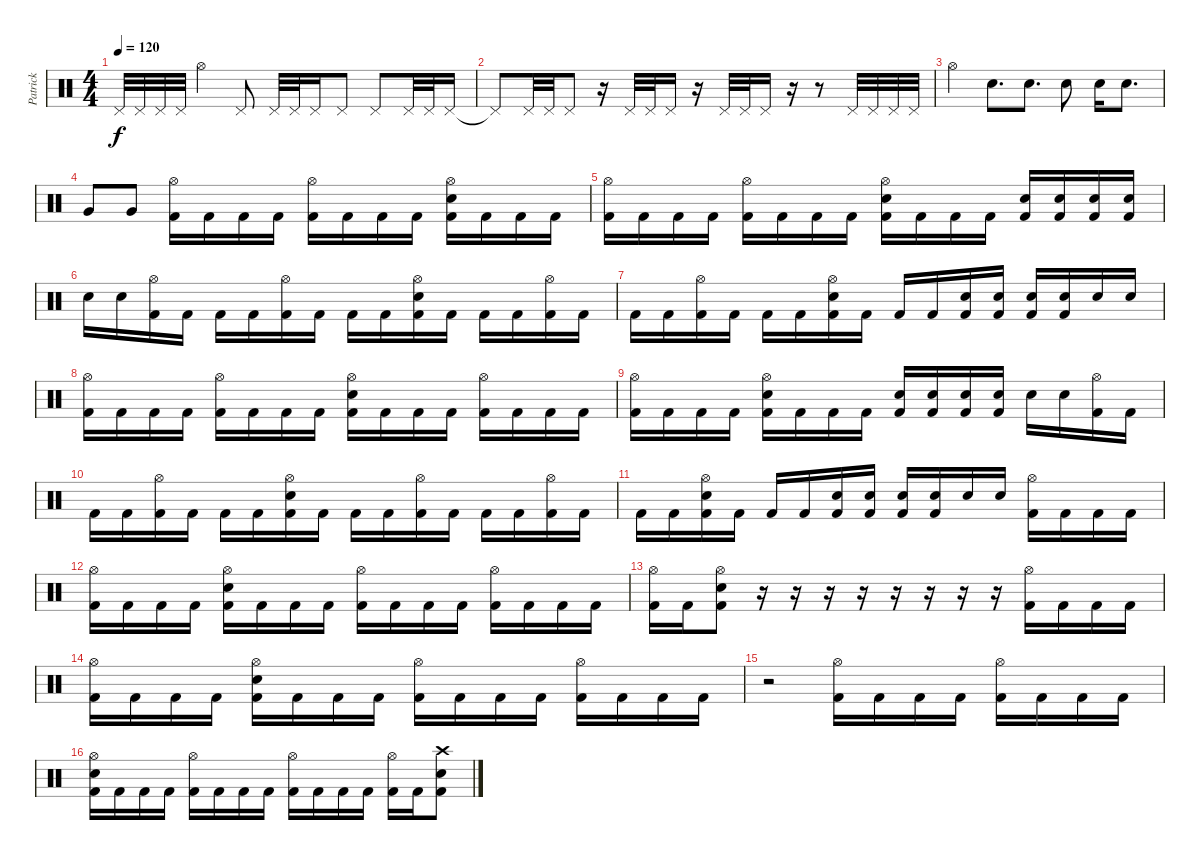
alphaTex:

\track ("Patrick" "Patrick") {instrument percussion}
\staff {score}
\articulation defaults
\ts (4 4)
\tempo 120
\clef neutral
\ks c "Pedal Hi-Hat (hit)".32{dy f} "Pedal Hi-Hat (hit)".32 "Pedal Hi-Hat (hit)".32 "Pedal Hi-Hat (hit)".32 "Hi-Hat (open)".4 "Pedal Hi-Hat (hit)".8 "Pedal Hi-Hat (hit)".32 "Pedal Hi-Hat (hit)".32 "Pedal Hi-Hat (hit)".16 "Pedal Hi-Hat (hit)".8 "Pedal Hi-Hat (hit)".8 "Pedal Hi-Hat (hit)".32 "Pedal Hi-Hat (hit)".32 "Pedal Hi-Hat (hit)".16
|
"Pedal Hi-Hat (hit)"{t}.8 "Pedal Hi-Hat (hit)".32 "Pedal Hi-Hat (hit)".32 "Pedal Hi-Hat (hit)".8 r.16 "Pedal Hi-Hat (hit)".32 "Pedal Hi-Hat (hit)".32 "Pedal Hi-Hat (hit)".16 r.16 "Pedal Hi-Hat (hit)".32 "Pedal Hi-Hat (hit)".32 "Pedal Hi-Hat (hit)".16 r.16 r.8 "Pedal Hi-Hat (hit)".32 "Pedal Hi-Hat (hit)".32 "Pedal Hi-Hat (hit)".32 "Pedal Hi-Hat (hit)".32 |
"Hi-Hat (open)".4 "Snare (hit) 2".8{d} "Snare (hit) 2".8{d} "Snare (hit) 2".8 "Snare (hit) 2".16 "Snare (hit) 2".8{d} |
"Very Low Tom (hit)".8 "Very Low Tom (hit)".8 ("Hi-Hat (open)" "Kick (hit) 2").16 "Kick (hit) 2".16 "Kick (hit) 2".16 "Kick (hit) 2".16 ("Hi-Hat (open)" "Kick (hit) 2").16 "Kick (hit) 2".16 "Kick (hit) 2".16 "Kick (hit) 2".16 ("Hi-Hat (open)" "Snare (hit) 2" "Kick (hit) 2").16 "Kick (hit) 2".16 "Kick (hit) 2".16 "Kick (hit) 2".16 |
("Hi-Hat (open)" "Kick (hit) 2").16 "Kick (hit) 2".16 "Kick (hit) 2".16 "Kick (hit) 2".16 ("Hi-Hat (open)" "Kick (hit) 2").16 "Kick (hit) 2".16 "Kick (hit) 2".16 "Kick (hit) 2".16 ("Hi-Hat (open)" "Snare (hit) 2" "Kick (hit) 2").16 "Kick (hit) 2".16 "Kick (hit) 2".16 "Kick (hit) 2".16 ("Snare (hit) 2" "Kick (hit) 2").16 ("Snare (hit) 2" "Kick (hit) 2").16 ("Snare (hit) 2" "Kick (hit) 2").16 ("Snare (hit) 2" "Kick (hit) 2").16 |
"Snare (hit) 2".16 "Snare (hit) 2".16 ("Hi-Hat (open)" "Kick (hit) 2").16 "Kick (hit) 2".16 "Kick (hit) 2".16 "Kick (hit) 2".16 ("Hi-Hat (open)" "Kick (hit) 2").16 "Kick (hit) 2".16 "Kick (hit) 2".16 "Kick (hit) 2".16 ("Hi-Hat (open)" "Snare (hit) 2" "Kick (hit) 2").16 "Kick (hit) 2".16 "Kick (hit) 2".16 "Kick (hit) 2".16 ("Hi-Hat (open)" "Kick (hit) 2").16 "Kick (hit) 2".16 |
"Kick (hit) 2".16 "Kick (hit) 2".16 ("Hi-Hat (open)" "Kick (hit) 2").16 "Kick (hit) 2".16 "Kick (hit) 2".16 "Kick (hit) 2".16 ("Hi-Hat (open)" "Snare (hit) 2" "Kick (hit) 2").16 "Kick (hit) 2".16 "Kick (hit) 2".16 "Kick (hit) 2".16 ("Snare (hit) 2" "Kick (hit) 2").16 ("Snare (hit) 2" "Kick (hit) 2").16 ("Snare (hit) 2" "Kick (hit) 2").16 ("Snare (hit) 2" "Kick (hit) 2").16 "Snare (hit) 2".16 "Snare (hit) 2".16 |
("Hi-Hat (open)" "Kick (hit) 2").16 "Kick (hit) 2".16 "Kick (hit) 2".16 "Kick (hit) 2".16 ("Hi-Hat (open)" "Kick (hit) 2").16 "Kick (hit) 2".16 "Kick (hit) 2".16 "Kick (hit) 2".16 ("Hi-Hat (open)" "Snare (hit) 2" "Kick (hit) 2").16 "Kick (hit) 2".16 "Kick (hit) 2".16 "Kick (hit) 2".16 ("Hi-Hat (open)" "Kick (hit) 2").16 "Kick (hit) 2".16 "Kick (hit) 2".16 "Kick (hit) 2".16 |
("Hi-Hat (open)" "Kick (hit) 2").16 "Kick (hit) 2".16 "Kick (hit) 2".16 "Kick (hit) 2".16 ("Hi-Hat (open)" "Snare (hit) 2" "Kick (hit) 2").16 "Kick (hit) 2".16 "Kick (hit) 2".16 "Kick (hit) 2".16 ("Snare (hit) 2" "Kick (hit) 2").16 ("Snare (hit) 2" "Kick (hit) 2").16 ("Snare (hit) 2" "Kick (hit) 2").16 ("Snare (hit) 2" "Kick (hit) 2").16 "Snare (hit) 2".16 "Snare (hit) 2".16 ("Hi-Hat (open)" "Kick (hit) 2").16 "Kick (hit) 2".16 |
"Kick (hit) 2".16 "Kick (hit) 2".16 ("Hi-Hat (open)" "Kick (hit) 2").16 "Kick (hit) 2".16 "Kick (hit) 2".16 "Kick (hit) 2".16 ("Hi-Hat (open)" "Snare (hit) 2" "Kick (hit) 2").16 "Kick (hit) 2".16 "Kick (hit) 2".16 "Kick (hit) 2".16 ("Hi-Hat (open)" "Kick (hit) 2").16 "Kick (hit) 2".16 "Kick (hit) 2".16 "Kick (hit) 2".16 ("Hi-Hat (open)" "Kick (hit) 2").16 "Kick (hit) 2".16 |
"Kick (hit) 2".16 "Kick (hit) 2".16 ("Hi-Hat (open)" "Snare (hit) 2" "Kick (hit) 2").16 "Kick (hit) 2".16 "Kick (hit) 2".16 "Kick (hit) 2".16 ("Snare (hit) 2" "Kick (hit) 2").16 ("Snare (hit) 2" "Kick (hit) 2").16 ("Snare (hit) 2" "Kick (hit) 2").16 ("Snare (hit) 2" "Kick (hit) 2").16 "Snare (hit) 2".16 "Snare (hit) 2".16 ("Hi-Hat (open)" "Kick (hit) 2").16 "Kick (hit) 2".16 "Kick (hit) 2".16 "Kick (hit) 2".16 |
("Hi-Hat (open)" "Kick (hit) 2").16 "Kick (hit) 2".16 "Kick (hit) 2".16 "Kick (hit) 2".16 ("Hi-Hat (open)" "Snare (hit) 2" "Kick (hit) 2").16 "Kick (hit) 2".16 "Kick (hit) 2".16 "Kick (hit) 2".16 ("Hi-Hat (open)" "Kick (hit) 2").16 "Kick (hit) 2".16 "Kick (hit) 2".16 "Kick (hit) 2".16 ("Hi-Hat (open)" "Kick (hit) 2").16 "Kick (hit) 2".16 "Kick (hit) 2".16 "Kick (hit) 2".16 |
("Hi-Hat (open)" "Kick (hit) 2").16 "Kick (hit) 2".16 ("Hi-Hat (open)" "Snare (hit) 2" "Kick (hit) 2").8 r.16 r.16 r.16 r.16 r.16 r.16 r.16 r.16 ("Hi-Hat (open)" "Kick (hit) 2").16 "Kick (hit) 2".16 "Kick (hit) 2".16 "Kick (hit) 2".16 |
("Hi-Hat (open)" "Kick (hit) 2").16 "Kick (hit) 2".16 "Kick (hit) 2".16 "Kick (hit) 2".16 ("Hi-Hat (open)" "Snare (hit) 2" "Kick (hit) 2").16 "Kick (hit) 2".16 "Kick (hit) 2".16 "Kick (hit) 2".16 ("Hi-Hat (open)" "Kick (hit) 2").16 "Kick (hit) 2".16 "Kick (hit) 2".16 "Kick (hit) 2".16 ("Hi-Hat (open)" "Kick (hit) 2").16 "Kick (hit) 2".16 "Kick (hit) 2".16 "Kick (hit) 2".16 |
r.2 ("Hi-Hat (open)" "Kick (hit) 2").16 "Kick (hit) 2".16 "Kick (hit) 2".16 "Kick (hit) 2".16 ("Hi-Hat (open)" "Kick (hit) 2").16 "Kick (hit) 2".16 "Kick (hit) 2".16 "Kick (hit) 2".16 |
("Hi-Hat (open)" "Snare (hit) 2" "Kick (hit) 2").16 "Kick (hit) 2".16 "Kick (hit) 2".16 "Kick (hit) 2".16 ("Hi-Hat (open)" "Kick (hit) 2").16 "Kick (hit) 2".16 "Kick (hit) 2".16 "Kick (hit) 2".16 ("Hi-Hat (open)" "Kick (hit) 2").16 "Kick (hit) 2".16 "Kick (hit) 2".16 "Kick (hit) 2".16 ("Hi-Hat (open)" "Kick (hit) 2").16 "Kick (hit) 2".16 ("Snare (hit) 2" "Crash high (hit)" "Kick (hit) 2").8
